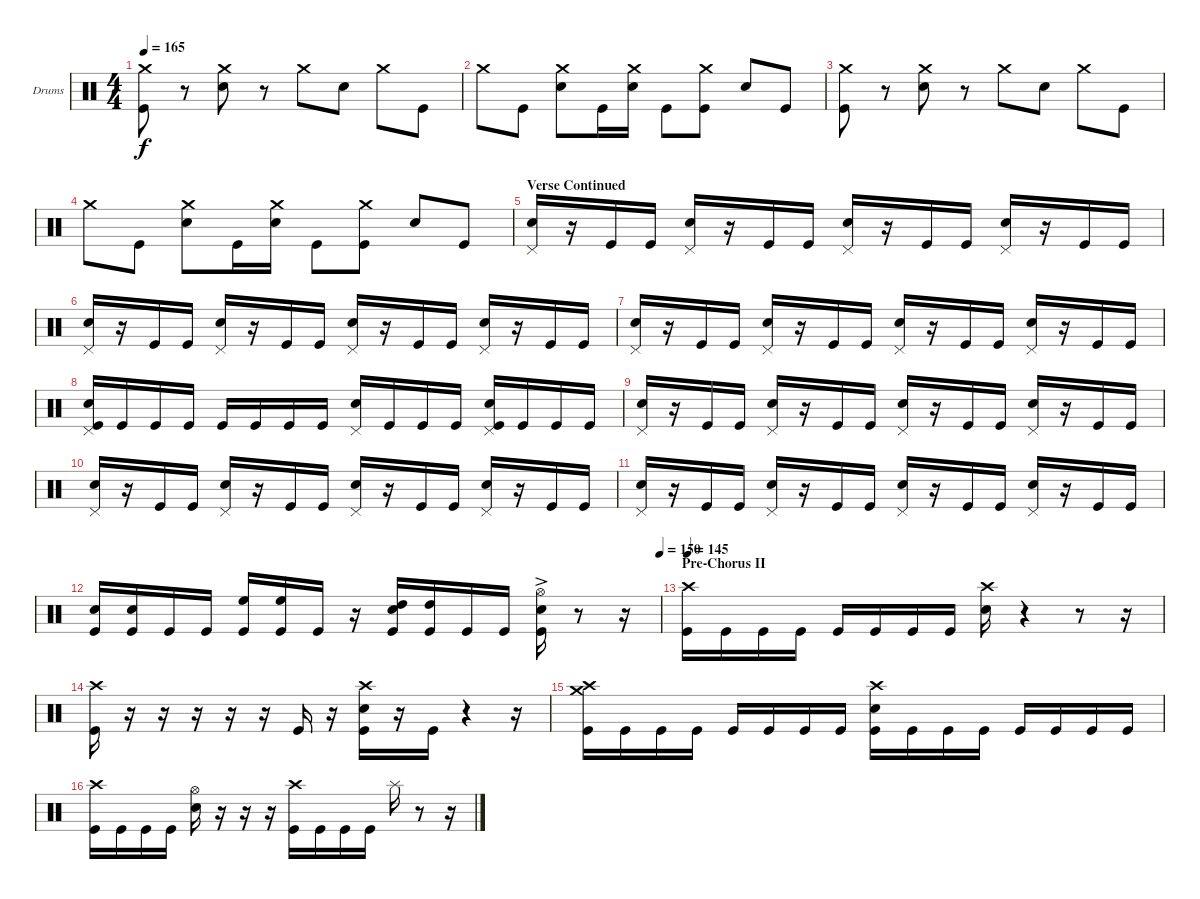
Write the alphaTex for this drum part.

\bracketExtendMode groupsimilarinstruments
\firstSystemTrackNameOrientation horizontal
\otherSystemsTrackNameOrientation horizontal
\track ("Cory La Quay" "Drums") {instrument percussion}
\staff {score}
\articulation defaults
\ts (4 4)
\tempo 165
\clef neutral
\ks c
("Crash medium (hit)" "Kick (hit)").8{dy f} r.8 ("Crash medium (hit)" "Snare (hit) 2").8 r.8 "Crash medium (hit)".8 "Snare (hit) 2".8 "Crash medium (hit)".8 "Kick (hit)".8 |
"Crash medium (hit)".8 "Kick (hit)".8 ("Crash medium (hit)" "Snare (hit) 2").8 "Kick (hit)".16 ("Crash medium (hit)" "Snare (hit) 2").16 "Kick (hit)".8 ("Crash medium (hit)" "Kick (hit)").8 "Snare (hit) 2".8 "Kick (hit)".8 |
("Crash medium (hit)" "Kick (hit)").8 r.8 ("Crash medium (hit)" "Snare (hit) 2").8 r.8 "Crash medium (hit)".8 "Snare (hit) 2".8 "Crash medium (hit)".8 "Kick (hit)".8 |
"Crash medium (hit)".8 "Kick (hit)".8 ("Crash medium (hit)" "Snare (hit) 2").8 "Kick (hit)".16 ("Crash medium (hit)" "Snare (hit) 2").16 "Kick (hit)".8 ("Crash medium (hit)" "Kick (hit)").8 "Snare (hit) 2".8 "Kick (hit)".8 |
\section ("" "Verse Continued")
("Snare (hit) 2" "Pedal Hi-Hat (hit)").16 r.16 "Kick (hit)".16 "Kick (hit)".16 ("Pedal Hi-Hat (hit)" "Snare (hit) 2").16 r.16 "Kick (hit)".16 "Kick (hit)".16 ("Pedal Hi-Hat (hit)" "Snare (hit) 2").16 r.16 "Kick (hit)".16 "Kick (hit)".16 ("Pedal Hi-Hat (hit)" "Snare (hit) 2").16 r.16 "Kick (hit)".16 "Kick (hit)".16 |
("Pedal Hi-Hat (hit)" "Snare (hit) 2").16 r.16 "Kick (hit)".16 "Kick (hit)".16 ("Pedal Hi-Hat (hit)" "Snare (hit) 2").16 r.16 "Kick (hit)".16 "Kick (hit)".16 ("Pedal Hi-Hat (hit)" "Snare (hit) 2").16 r.16 "Kick (hit)".16 "Kick (hit)".16 ("Pedal Hi-Hat (hit)" "Snare (hit) 2").16 r.16 "Kick (hit)".16 "Kick (hit)".16 |
("Pedal Hi-Hat (hit)" "Snare (hit) 2").16 r.16 "Kick (hit)".16 "Kick (hit)".16 ("Pedal Hi-Hat (hit)" "Snare (hit) 2").16 r.16 "Kick (hit)".16 "Kick (hit)".16 ("Pedal Hi-Hat (hit)" "Snare (hit) 2").16 r.16 "Kick (hit)".16 "Kick (hit)".16 ("Pedal Hi-Hat (hit)" "Snare (hit) 2").16 r.16 "Kick (hit)".16 "Kick (hit)".16 |
("Pedal Hi-Hat (hit)" "Snare (hit) 2" "Kick (hit)").16 "Kick (hit)".16 "Kick (hit)".16 "Kick (hit)".16 "Kick (hit)".16 "Kick (hit)".16 "Kick (hit)".16 "Kick (hit)".16 ("Pedal Hi-Hat (hit)" "Snare (hit) 2").16 "Kick (hit)".16 "Kick (hit)".16 "Kick (hit)".16 ("Pedal Hi-Hat (hit)" "Snare (hit) 2" "Kick (hit)").16 "Kick (hit)".16 "Kick (hit)".16 "Kick (hit)".16 |
("Pedal Hi-Hat (hit)" "Snare (hit) 2").16 r.16 "Kick (hit)".16 "Kick (hit)".16 ("Pedal Hi-Hat (hit)" "Snare (hit) 2").16 r.16 "Kick (hit)".16 "Kick (hit)".16 ("Pedal Hi-Hat (hit)" "Snare (hit) 2").16 r.16 "Kick (hit)".16 "Kick (hit)".16 ("Pedal Hi-Hat (hit)" "Snare (hit) 2").16 r.16 "Kick (hit)".16 "Kick (hit)".16 |
("Pedal Hi-Hat (hit)" "Snare (hit) 2").16 r.16 "Kick (hit)".16 "Kick (hit)".16 ("Pedal Hi-Hat (hit)" "Snare (hit) 2").16 r.16 "Kick (hit)".16 "Kick (hit)".16 ("Pedal Hi-Hat (hit)" "Snare (hit) 2").16 r.16 "Kick (hit)".16 "Kick (hit)".16 ("Pedal Hi-Hat (hit)" "Snare (hit) 2").16 r.16 "Kick (hit)".16 "Kick (hit)".16 |
("Pedal Hi-Hat (hit)" "Snare (hit) 2").16 r.16 "Kick (hit)".16 "Kick (hit)".16 ("Pedal Hi-Hat (hit)" "Snare (hit) 2").16 r.16 "Kick (hit)".16 "Kick (hit)".16 ("Pedal Hi-Hat (hit)" "Snare (hit) 2").16 r.16 "Kick (hit)".16 "Kick (hit)".16 ("Pedal Hi-Hat (hit)" "Snare (hit) 2").16 r.16 "Kick (hit)".16 "Kick (hit)".16 |
\tempo (150 1)
("Snare (hit) 2" "Kick (hit)").16 ("Snare (hit) 2" "Kick (hit)").16 "Kick (hit)".16 "Kick (hit)".16 ("High Floor Tom (hit)" "Kick (hit)").16 ("High Floor Tom (hit)" "Kick (hit)").16 "Kick (hit)".16 r.16 ("High Tom (hit)" "Snare (hit) 2" "Kick (hit)").16 ("High Tom (hit)" "Kick (hit)").16 "Kick (hit)".16 "Kick (hit)".16 ("Snare (hit) 2" "Hi-Hat (open)" "Kick (hit)"{ac}).16 r.8 r.16 |
\section ("" "Pre-Chorus II")
\tempo 145
("Crash high (hit)" "Kick (hit)").16 "Kick (hit)".16 "Kick (hit)".16 "Kick (hit)".16 "Kick (hit)".16 "Kick (hit)".16 "Kick (hit)".16 "Kick (hit)".16 ("Crash high (hit)" "Snare (hit) 2").16 r.4 r.8 r.16 |
("Crash high (hit)" "Kick (hit)").16 r.16 r.16 r.16 r.16 r.16 "Kick (hit)".16 r.16 ("Crash high (hit)" "Snare (hit) 2" "Kick (hit)").16 r.16 "Kick (hit)".16 r.4 r.16 |
("Crash high (hit)" "Crash medium (hit)" "Kick (hit)").16 "Kick (hit)".16 "Kick (hit)".16 "Kick (hit)".16 "Kick (hit)".16 "Kick (hit)".16 "Kick (hit)".16 "Kick (hit)".16 ("Crash high (hit)" "Snare (hit) 2" "Kick (hit)").16 "Kick (hit)".16 "Kick (hit)".16 "Kick (hit)".16 "Kick (hit)".16 "Kick (hit)".16 "Kick (hit)".16 "Kick (hit)".16 |
("Crash high (hit)" "Kick (hit)").16 "Kick (hit)".16 "Kick (hit)".16 "Kick (hit)".16 ("Hi-Hat (open)" "Snare (hit) 2").16 r.16 r.16 r.16 ("Crash high (hit)" "Kick (hit)").16 "Kick (hit)".16 "Kick (hit)".16 "Kick (hit)".16 "Splash (hit)".16 r.8 r.16
